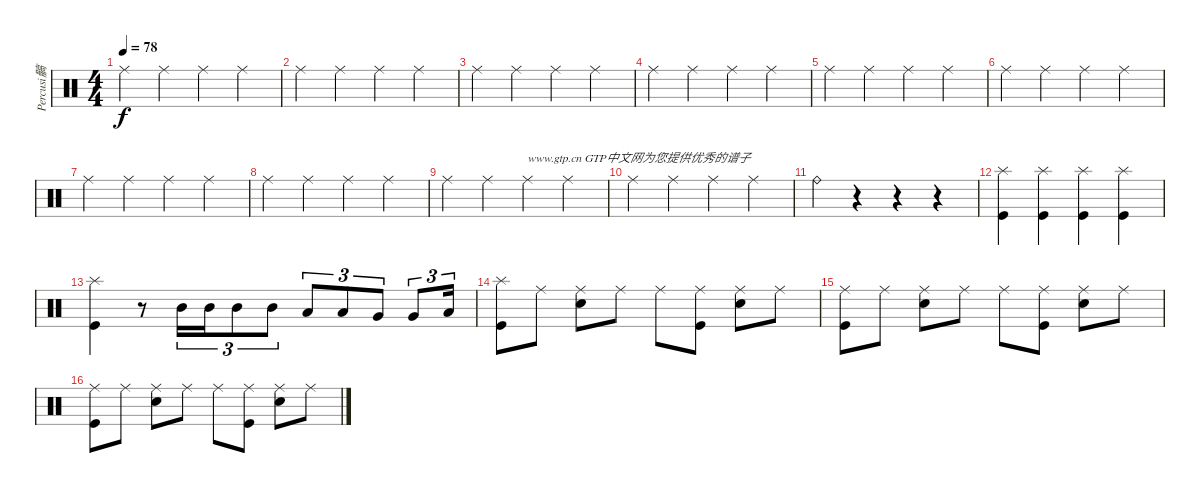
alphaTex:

\track ("Percusi髇" "Percusi髇") {instrument percussion}
\staff {score}
\articulation defaults
\ts (4 4)
\tempo 78
\clef neutral
\ks c "Ride (middle)".4{dy f} "Ride (middle)".4 "Ride (middle)".4 "Ride (middle)".4
|
"Ride (middle)".4 "Ride (middle)".4 "Ride (middle)".4 "Ride (middle)".4 |
"Ride (middle)".4 "Ride (middle)".4 "Ride (middle)".4 "Ride (middle)".4 |
"Ride (middle)".4 "Ride (middle)".4 "Ride (middle)".4 "Ride (middle)".4 |
"Ride (middle)".4 "Ride (middle)".4 "Ride (middle)".4 "Ride (middle)".4 |
"Ride (middle)".4 "Ride (middle)".4 "Ride (middle)".4 "Ride (middle)".4 |
"Ride (middle)".4 "Ride (middle)".4 "Ride (middle)".4 "Ride (middle)".4 |
"Ride (middle)".4 "Ride (middle)".4 "Ride (middle)".4 "Ride (middle)".4 |
"Ride (middle)".4 "Ride (middle)".4 "Ride (middle)".4{txt "www.gtp.cn GTP中文网为您提供优秀的谱子"} "Ride (middle)".4 |
"Ride (middle)".4 "Ride (middle)".4 "Ride (middle)".4 "Ride (middle)".4 |
"Ride (bell)".4 r.4 r.4 r.4 |
("Splash (hit)" "Kick (hit)").4 ("Splash (hit)" "Kick (hit)").4 ("Splash (hit)" "Kick (hit)").4 ("Splash (hit)" "Kick (hit)").4 |
("Splash (hit)" "Kick (hit)").4 r.8 "Mid Tom (hit)".16{tu (3 2)} "Mid Tom (hit)".16{tu (3 2)} "Mid Tom (hit)".8{tu (3 2)} "Mid Tom (hit)".8{tu (3 2)} "Low Tom (hit)".8{tu (3 2)} "Low Tom (hit)".8{tu (3 2)} "Very Low Tom (hit)".8{tu (3 2)} "Very Low Tom (hit)".8{tu (3 2)} "Low Floor Tom (hit)".16{tu (3 2)} |
("Splash (hit)" "Kick (hit)").8 "Ride (middle)".8 ("Ride (middle)" "Snare (hit) 2").8 "Ride (middle)".8 "Ride (middle)".8 ("Ride (middle)" "Kick (hit)").8 ("Ride (middle)" "Snare (hit) 2").8 "Ride (middle)".8 |
("Ride (middle)" "Kick (hit)").8 "Ride (middle)".8 ("Ride (middle)" "Snare (hit) 2").8 "Ride (middle)".8 "Ride (middle)".8 ("Ride (middle)" "Kick (hit)").8 ("Ride (middle)" "Snare (hit) 2").8 "Ride (middle)".8 |
("Ride (middle)" "Kick (hit)").8 "Ride (middle)".8 ("Ride (middle)" "Snare (hit) 2").8 "Ride (middle)".8 "Ride (middle)".8 ("Ride (middle)" "Kick (hit)").8 ("Ride (middle)" "Snare (hit) 2").8 "Ride (middle)".8
